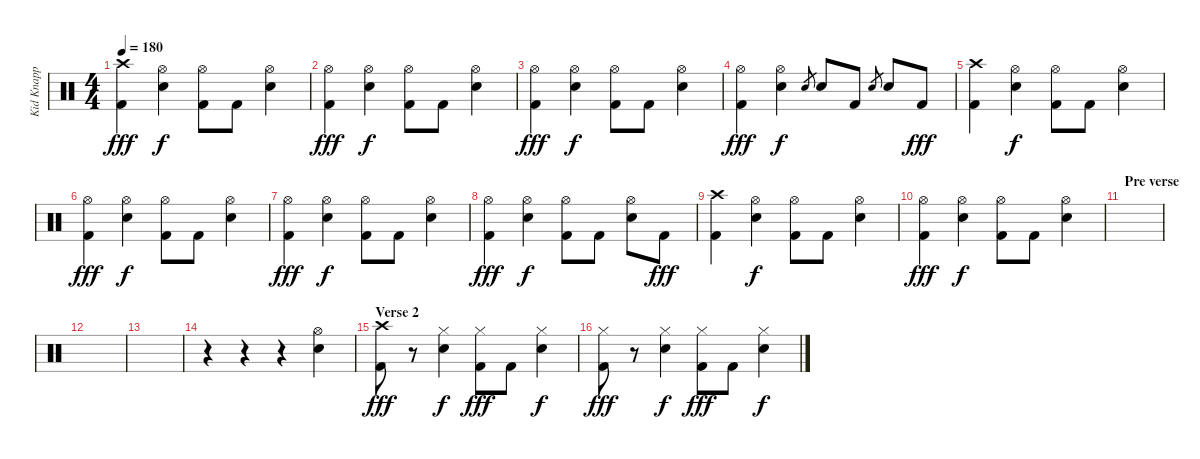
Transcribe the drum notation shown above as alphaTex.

\track ("Kid Knapp (Drums)" "Kid Knapp ") {instrument percussion}
\staff {score}
\articulation defaults
\ts (4 4)
\tempo 180
\clef neutral
\ks c
("Crash high (hit)" "Kick (hit) 2").4{dy fff} ("Hi-Hat (open)" "Snare (hit) 2").4{dy f} ("Hi-Hat (open)" "Kick (hit) 2").8 "Kick (hit) 2".8 ("Hi-Hat (open)" "Snare (hit) 2").4 |
("Hi-Hat (open)" "Kick (hit) 2").4{dy fff} ("Hi-Hat (open)" "Snare (hit) 2").4{dy f} ("Hi-Hat (open)" "Kick (hit) 2").8 "Kick (hit) 2".8 ("Hi-Hat (open)" "Snare (hit) 2").4 |
("Hi-Hat (open)" "Kick (hit) 2").4{dy fff} ("Hi-Hat (open)" "Snare (hit) 2").4{dy f} ("Hi-Hat (open)" "Kick (hit) 2").8 "Kick (hit) 2".8 ("Hi-Hat (open)" "Snare (hit) 2").4 |
("Hi-Hat (open)" "Kick (hit) 2").4{dy fff} ("Hi-Hat (open)" "Snare (hit) 2").4{dy f} "Snare (hit) 2".8{gr} "Snare (hit) 2".8 "Kick (hit) 2".8 "Snare (hit) 2".8{gr} "Snare (hit) 2".8 "Kick (hit) 2".8{dy fff} |
("Crash high (hit)" "Kick (hit) 2").4 ("Hi-Hat (open)" "Snare (hit) 2").4{dy f} ("Hi-Hat (open)" "Kick (hit) 2").8 "Kick (hit) 2".8 ("Hi-Hat (open)" "Snare (hit) 2").4 |
("Hi-Hat (open)" "Kick (hit) 2").4{dy fff} ("Hi-Hat (open)" "Snare (hit) 2").4{dy f} ("Hi-Hat (open)" "Kick (hit) 2").8 "Kick (hit) 2".8 ("Hi-Hat (open)" "Snare (hit) 2").4 |
("Hi-Hat (open)" "Kick (hit) 2").4{dy fff} ("Hi-Hat (open)" "Snare (hit) 2").4{dy f} ("Hi-Hat (open)" "Kick (hit) 2").8 "Kick (hit) 2".8 ("Hi-Hat (open)" "Snare (hit) 2").4 |
("Hi-Hat (open)" "Kick (hit) 2").4{dy fff} ("Hi-Hat (open)" "Snare (hit) 2").4{dy f} ("Hi-Hat (open)" "Kick (hit) 2").8 "Kick (hit) 2".8 ("Hi-Hat (open)" "Snare (hit) 2").8 "Kick (hit) 2".8{dy fff} |
("Crash high (hit)" "Kick (hit) 2").4 ("Hi-Hat (open)" "Snare (hit) 2").4{dy f} ("Hi-Hat (open)" "Kick (hit) 2").8 "Kick (hit) 2".8 ("Hi-Hat (open)" "Snare (hit) 2").4 |
("Hi-Hat (open)" "Kick (hit) 2").4{dy fff} ("Hi-Hat (open)" "Snare (hit) 2").4{dy f} ("Hi-Hat (open)" "Kick (hit) 2").8 "Kick (hit) 2".8 ("Hi-Hat (open)" "Snare (hit) 2").4 |
\section ("" "Pre verse")
|
|
|
r.4 r.4 r.4 ("Hi-Hat (open)" "Snare (hit) 2").4 |
\section ("" "Verse 2")
("Crash high (hit)" "Kick (hit) 2").8{dy fff} r.8 ("Hi-Hat (closed)" "Snare (hit) 2").4{dy f} ("Hi-Hat (closed)" "Kick (hit) 2").8{dy fff} "Kick (hit) 2".8 ("Hi-Hat (closed)" "Snare (hit) 2").4{dy f} |
("Hi-Hat (closed)" "Kick (hit) 2").8{dy fff} r.8 ("Hi-Hat (closed)" "Snare (hit) 2").4{dy f} ("Hi-Hat (closed)" "Kick (hit) 2").8{dy fff} "Kick (hit) 2".8 ("Hi-Hat (closed)" "Snare (hit) 2").4{dy f}
